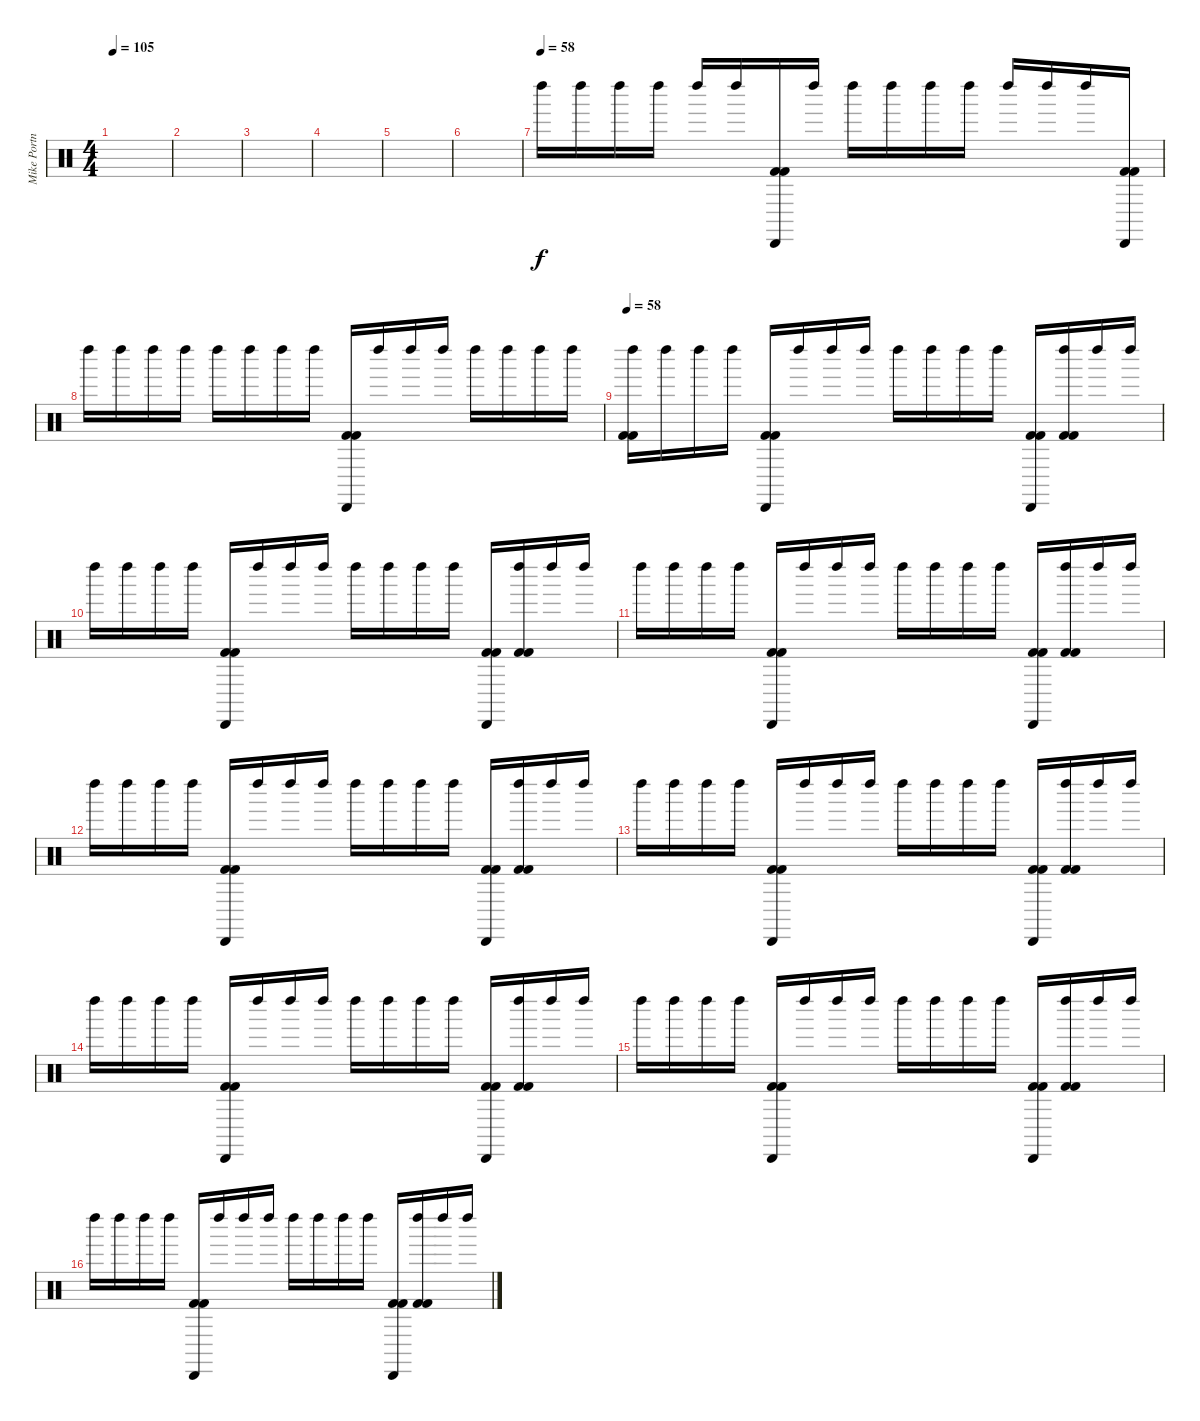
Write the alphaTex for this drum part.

\track ("Mike Portnoy - Drum" "Mike Portn") {instrument percussion}
\staff {score}
\articulation defaults
\ts (4 4)
\tempo 105
\clef neutral
\ks c
|
|
|
|
|
|
\tempo (58)
"Left Maraca (hit)".16 "Left Maraca (hit)".16 "Left Maraca (hit)".16 "Left Maraca (hit)".16 "Left Maraca (hit)".16 "Left Maraca (hit)".16 ("Cabasa (hit)" "Kick (hit) 2" "Kick (hit) 2").16 "Left Maraca (hit)".16 "Left Maraca (hit)".16 "Left Maraca (hit)".16 "Left Maraca (hit)".16 "Left Maraca (hit)".16 "Left Maraca (hit)".16 "Left Maraca (hit)".16 "Left Maraca (hit)".16 ("Cabasa (hit)" "Kick (hit) 2" "Kick (hit) 2").16 |
"Left Maraca (hit)".16 "Left Maraca (hit)".16 "Left Maraca (hit)".16 "Left Maraca (hit)".16 "Left Maraca (hit)".16 "Left Maraca (hit)".16 "Left Maraca (hit)".16 "Left Maraca (hit)".16 ("Cabasa (hit)" "Kick (hit) 2" "Kick (hit) 2").16 "Left Maraca (hit)".16 "Left Maraca (hit)".16 "Left Maraca (hit)".16 "Left Maraca (hit)".16 "Left Maraca (hit)".16 "Left Maraca (hit)".16 "Left Maraca (hit)".16 |
\tempo 58
("Left Maraca (hit)" "Kick (hit) 2" "Kick (hit) 2").16 "Left Maraca (hit)".16 "Left Maraca (hit)".16 "Left Maraca (hit)".16 ("Cabasa (hit)" "Kick (hit) 2" "Kick (hit) 2").16 "Left Maraca (hit)".16 "Left Maraca (hit)".16 "Left Maraca (hit)".16 "Left Maraca (hit)".16 "Left Maraca (hit)".16 "Left Maraca (hit)".16 "Left Maraca (hit)".16 ("Cabasa (hit)" "Kick (hit) 2" "Kick (hit) 2").16 ("Left Maraca (hit)" "Kick (hit) 2" "Kick (hit) 2").16 "Left Maraca (hit)".16 "Left Maraca (hit)".16 |
"Left Maraca (hit)".16 "Left Maraca (hit)".16 "Left Maraca (hit)".16 "Left Maraca (hit)".16 ("Cabasa (hit)" "Kick (hit) 2" "Kick (hit) 2").16 "Left Maraca (hit)".16 "Left Maraca (hit)".16 "Left Maraca (hit)".16 "Left Maraca (hit)".16 "Left Maraca (hit)".16 "Left Maraca (hit)".16 "Left Maraca (hit)".16 ("Cabasa (hit)" "Kick (hit) 2" "Kick (hit) 2").16 ("Left Maraca (hit)" "Kick (hit) 2" "Kick (hit) 2").16 "Left Maraca (hit)".16 "Left Maraca (hit)".16 |
"Left Maraca (hit)".16 "Left Maraca (hit)".16 "Left Maraca (hit)".16 "Left Maraca (hit)".16 ("Cabasa (hit)" "Kick (hit) 2" "Kick (hit) 2").16 "Left Maraca (hit)".16 "Left Maraca (hit)".16 "Left Maraca (hit)".16 "Left Maraca (hit)".16 "Left Maraca (hit)".16 "Left Maraca (hit)".16 "Left Maraca (hit)".16 ("Cabasa (hit)" "Kick (hit) 2" "Kick (hit) 2").16 ("Left Maraca (hit)" "Kick (hit) 2" "Kick (hit) 2").16 "Left Maraca (hit)".16 "Left Maraca (hit)".16 |
"Left Maraca (hit)".16 "Left Maraca (hit)".16 "Left Maraca (hit)".16 "Left Maraca (hit)".16 ("Cabasa (hit)" "Kick (hit) 2" "Kick (hit) 2").16 "Left Maraca (hit)".16 "Left Maraca (hit)".16 "Left Maraca (hit)".16 "Left Maraca (hit)".16 "Left Maraca (hit)".16 "Left Maraca (hit)".16 "Left Maraca (hit)".16 ("Cabasa (hit)" "Kick (hit) 2" "Kick (hit) 2").16 ("Left Maraca (hit)" "Kick (hit) 2" "Kick (hit) 2").16 "Left Maraca (hit)".16 "Left Maraca (hit)".16 |
"Left Maraca (hit)".16 "Left Maraca (hit)".16 "Left Maraca (hit)".16 "Left Maraca (hit)".16 ("Cabasa (hit)" "Kick (hit) 2" "Kick (hit) 2").16 "Left Maraca (hit)".16 "Left Maraca (hit)".16 "Left Maraca (hit)".16 "Left Maraca (hit)".16 "Left Maraca (hit)".16 "Left Maraca (hit)".16 "Left Maraca (hit)".16 ("Cabasa (hit)" "Kick (hit) 2" "Kick (hit) 2").16 ("Left Maraca (hit)" "Kick (hit) 2" "Kick (hit) 2").16 "Left Maraca (hit)".16 "Left Maraca (hit)".16 |
"Left Maraca (hit)".16 "Left Maraca (hit)".16 "Left Maraca (hit)".16 "Left Maraca (hit)".16 ("Cabasa (hit)" "Kick (hit) 2" "Kick (hit) 2").16 "Left Maraca (hit)".16 "Left Maraca (hit)".16 "Left Maraca (hit)".16 "Left Maraca (hit)".16 "Left Maraca (hit)".16 "Left Maraca (hit)".16 "Left Maraca (hit)".16 ("Cabasa (hit)" "Kick (hit) 2" "Kick (hit) 2").16 ("Left Maraca (hit)" "Kick (hit) 2" "Kick (hit) 2").16 "Left Maraca (hit)".16 "Left Maraca (hit)".16 |
"Left Maraca (hit)".16 "Left Maraca (hit)".16 "Left Maraca (hit)".16 "Left Maraca (hit)".16 ("Cabasa (hit)" "Kick (hit) 2" "Kick (hit) 2").16 "Left Maraca (hit)".16 "Left Maraca (hit)".16 "Left Maraca (hit)".16 "Left Maraca (hit)".16 "Left Maraca (hit)".16 "Left Maraca (hit)".16 "Left Maraca (hit)".16 ("Cabasa (hit)" "Kick (hit) 2" "Kick (hit) 2").16 ("Left Maraca (hit)" "Kick (hit) 2" "Kick (hit) 2").16 "Left Maraca (hit)".16 "Left Maraca (hit)".16 |
"Left Maraca (hit)".16 "Left Maraca (hit)".16 "Left Maraca (hit)".16 "Left Maraca (hit)".16 ("Cabasa (hit)" "Kick (hit) 2" "Kick (hit) 2").16 "Left Maraca (hit)".16 "Left Maraca (hit)".16 "Left Maraca (hit)".16 "Left Maraca (hit)".16 "Left Maraca (hit)".16 "Left Maraca (hit)".16 "Left Maraca (hit)".16 ("Cabasa (hit)" "Kick (hit) 2" "Kick (hit) 2").16 ("Left Maraca (hit)" "Kick (hit) 2" "Kick (hit) 2").16 "Left Maraca (hit)".16 "Left Maraca (hit)".16
